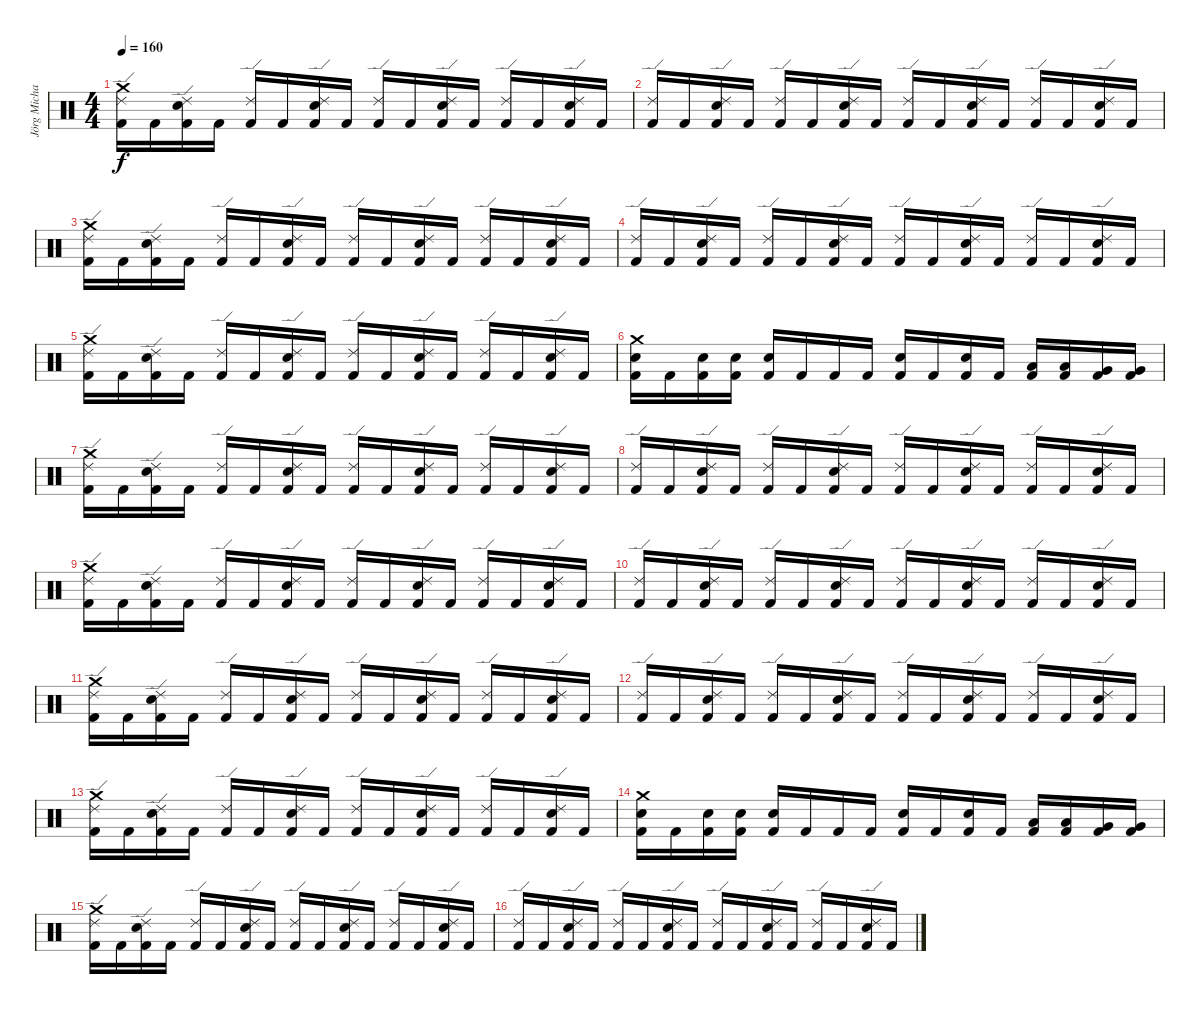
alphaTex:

\track ("Jörg Michael" "Jörg Micha") {instrument percussion}
\staff {score}
\articulation defaults
\ts (4 4)
\tempo 160
\clef neutral
\ks c
("Crash medium (hit)" "Ride (edge) 2" "Kick (hit) 2").16{dy f} "Kick (hit) 2".16 ("Electric Snare (hit)" "Ride (edge) 2" "Kick (hit) 2").16 "Kick (hit) 2".16 ("Ride (edge) 2" "Kick (hit) 2").16 "Kick (hit) 2".16 ("Electric Snare (hit)" "Ride (edge) 2" "Kick (hit) 2").16 "Kick (hit) 2".16 ("Ride (edge) 2" "Kick (hit) 2").16 "Kick (hit) 2".16 ("Electric Snare (hit)" "Ride (edge) 2" "Kick (hit) 2").16 "Kick (hit) 2".16 ("Ride (edge) 2" "Kick (hit) 2").16 "Kick (hit) 2".16 ("Electric Snare (hit)" "Ride (edge) 2" "Kick (hit) 2").16 "Kick (hit) 2".16 |
("Ride (edge) 2" "Kick (hit) 2").16 "Kick (hit) 2".16 ("Electric Snare (hit)" "Ride (edge) 2" "Kick (hit) 2").16 "Kick (hit) 2".16 ("Ride (edge) 2" "Kick (hit) 2").16 "Kick (hit) 2".16 ("Electric Snare (hit)" "Ride (edge) 2" "Kick (hit) 2").16 "Kick (hit) 2".16 ("Ride (edge) 2" "Kick (hit) 2").16 "Kick (hit) 2".16 ("Electric Snare (hit)" "Ride (edge) 2" "Kick (hit) 2").16 "Kick (hit) 2".16 ("Ride (edge) 2" "Kick (hit) 2").16 "Kick (hit) 2".16 ("Electric Snare (hit)" "Ride (edge) 2" "Kick (hit) 2").16 "Kick (hit) 2".16 |
("Crash medium (hit)" "Ride (edge) 2" "Kick (hit) 2").16 "Kick (hit) 2".16 ("Electric Snare (hit)" "Ride (edge) 2" "Kick (hit) 2").16 "Kick (hit) 2".16 ("Ride (edge) 2" "Kick (hit) 2").16 "Kick (hit) 2".16 ("Electric Snare (hit)" "Ride (edge) 2" "Kick (hit) 2").16 "Kick (hit) 2".16 ("Ride (edge) 2" "Kick (hit) 2").16 "Kick (hit) 2".16 ("Electric Snare (hit)" "Ride (edge) 2" "Kick (hit) 2").16 "Kick (hit) 2".16 ("Ride (edge) 2" "Kick (hit) 2").16 "Kick (hit) 2".16 ("Electric Snare (hit)" "Ride (edge) 2" "Kick (hit) 2").16 "Kick (hit) 2".16 |
("Ride (edge) 2" "Kick (hit) 2").16 "Kick (hit) 2".16 ("Electric Snare (hit)" "Ride (edge) 2" "Kick (hit) 2").16 "Kick (hit) 2".16 ("Ride (edge) 2" "Kick (hit) 2").16 "Kick (hit) 2".16 ("Electric Snare (hit)" "Ride (edge) 2" "Kick (hit) 2").16 "Kick (hit) 2".16 ("Ride (edge) 2" "Kick (hit) 2").16 "Kick (hit) 2".16 ("Electric Snare (hit)" "Ride (edge) 2" "Kick (hit) 2").16 "Kick (hit) 2".16 ("Ride (edge) 2" "Kick (hit) 2").16 "Kick (hit) 2".16 ("Electric Snare (hit)" "Ride (edge) 2" "Kick (hit) 2").16 "Kick (hit) 2".16 |
("Crash medium (hit)" "Ride (edge) 2" "Kick (hit) 2").16 "Kick (hit) 2".16 ("Electric Snare (hit)" "Ride (edge) 2" "Kick (hit) 2").16 "Kick (hit) 2".16 ("Ride (edge) 2" "Kick (hit) 2").16 "Kick (hit) 2".16 ("Electric Snare (hit)" "Ride (edge) 2" "Kick (hit) 2").16 "Kick (hit) 2".16 ("Ride (edge) 2" "Kick (hit) 2").16 "Kick (hit) 2".16 ("Electric Snare (hit)" "Ride (edge) 2" "Kick (hit) 2").16 "Kick (hit) 2".16 ("Ride (edge) 2" "Kick (hit) 2").16 "Kick (hit) 2".16 ("Electric Snare (hit)" "Ride (edge) 2" "Kick (hit) 2").16 "Kick (hit) 2".16 |
("Crash medium (hit)" "Electric Snare (hit)" "Kick (hit) 2").16 "Kick (hit) 2".16 ("Electric Snare (hit)" "Kick (hit) 2").16 ("Electric Snare (hit)" "Kick (hit) 2").16 ("Electric Snare (hit)" "Kick (hit) 2").16 "Kick (hit) 2".16 "Kick (hit) 2".16 "Kick (hit) 2".16 ("Electric Snare (hit)" "Kick (hit) 2").16 "Kick (hit) 2".16 ("Electric Snare (hit)" "Kick (hit) 2").16 "Kick (hit) 2".16 ("Low Tom (hit)" "Kick (hit) 2").16 ("Low Tom (hit)" "Kick (hit) 2").16 ("Very Low Tom (hit)" "Kick (hit) 2").16 ("Very Low Tom (hit)" "Kick (hit) 2").16 |
("Crash medium (hit)" "Ride (edge) 2" "Kick (hit) 2").16 "Kick (hit) 2".16 ("Electric Snare (hit)" "Ride (edge) 2" "Kick (hit) 2").16 "Kick (hit) 2".16 ("Ride (edge) 2" "Kick (hit) 2").16 "Kick (hit) 2".16 ("Electric Snare (hit)" "Ride (edge) 2" "Kick (hit) 2").16 "Kick (hit) 2".16 ("Ride (edge) 2" "Kick (hit) 2").16 "Kick (hit) 2".16 ("Electric Snare (hit)" "Ride (edge) 2" "Kick (hit) 2").16 "Kick (hit) 2".16 ("Ride (edge) 2" "Kick (hit) 2").16 "Kick (hit) 2".16 ("Electric Snare (hit)" "Ride (edge) 2" "Kick (hit) 2").16 "Kick (hit) 2".16 |
("Ride (edge) 2" "Kick (hit) 2").16 "Kick (hit) 2".16 ("Electric Snare (hit)" "Ride (edge) 2" "Kick (hit) 2").16 "Kick (hit) 2".16 ("Ride (edge) 2" "Kick (hit) 2").16 "Kick (hit) 2".16 ("Electric Snare (hit)" "Ride (edge) 2" "Kick (hit) 2").16 "Kick (hit) 2".16 ("Ride (edge) 2" "Kick (hit) 2").16 "Kick (hit) 2".16 ("Electric Snare (hit)" "Ride (edge) 2" "Kick (hit) 2").16 "Kick (hit) 2".16 ("Ride (edge) 2" "Kick (hit) 2").16 "Kick (hit) 2".16 ("Electric Snare (hit)" "Ride (edge) 2" "Kick (hit) 2").16 "Kick (hit) 2".16 |
("Crash medium (hit)" "Ride (edge) 2" "Kick (hit) 2").16 "Kick (hit) 2".16 ("Electric Snare (hit)" "Ride (edge) 2" "Kick (hit) 2").16 "Kick (hit) 2".16 ("Ride (edge) 2" "Kick (hit) 2").16 "Kick (hit) 2".16 ("Electric Snare (hit)" "Ride (edge) 2" "Kick (hit) 2").16 "Kick (hit) 2".16 ("Ride (edge) 2" "Kick (hit) 2").16 "Kick (hit) 2".16 ("Electric Snare (hit)" "Ride (edge) 2" "Kick (hit) 2").16 "Kick (hit) 2".16 ("Ride (edge) 2" "Kick (hit) 2").16 "Kick (hit) 2".16 ("Electric Snare (hit)" "Ride (edge) 2" "Kick (hit) 2").16 "Kick (hit) 2".16 |
("Ride (edge) 2" "Kick (hit) 2").16 "Kick (hit) 2".16 ("Electric Snare (hit)" "Ride (edge) 2" "Kick (hit) 2").16 "Kick (hit) 2".16 ("Ride (edge) 2" "Kick (hit) 2").16 "Kick (hit) 2".16 ("Electric Snare (hit)" "Ride (edge) 2" "Kick (hit) 2").16 "Kick (hit) 2".16 ("Ride (edge) 2" "Kick (hit) 2").16 "Kick (hit) 2".16 ("Electric Snare (hit)" "Ride (edge) 2" "Kick (hit) 2").16 "Kick (hit) 2".16 ("Ride (edge) 2" "Kick (hit) 2").16 "Kick (hit) 2".16 ("Electric Snare (hit)" "Ride (edge) 2" "Kick (hit) 2").16 "Kick (hit) 2".16 |
("Crash medium (hit)" "Ride (edge) 2" "Kick (hit) 2").16 "Kick (hit) 2".16 ("Electric Snare (hit)" "Ride (edge) 2" "Kick (hit) 2").16 "Kick (hit) 2".16 ("Ride (edge) 2" "Kick (hit) 2").16 "Kick (hit) 2".16 ("Electric Snare (hit)" "Ride (edge) 2" "Kick (hit) 2").16 "Kick (hit) 2".16 ("Ride (edge) 2" "Kick (hit) 2").16 "Kick (hit) 2".16 ("Electric Snare (hit)" "Ride (edge) 2" "Kick (hit) 2").16 "Kick (hit) 2".16 ("Ride (edge) 2" "Kick (hit) 2").16 "Kick (hit) 2".16 ("Electric Snare (hit)" "Ride (edge) 2" "Kick (hit) 2").16 "Kick (hit) 2".16 |
("Ride (edge) 2" "Kick (hit) 2").16 "Kick (hit) 2".16 ("Electric Snare (hit)" "Ride (edge) 2" "Kick (hit) 2").16 "Kick (hit) 2".16 ("Ride (edge) 2" "Kick (hit) 2").16 "Kick (hit) 2".16 ("Electric Snare (hit)" "Ride (edge) 2" "Kick (hit) 2").16 "Kick (hit) 2".16 ("Ride (edge) 2" "Kick (hit) 2").16 "Kick (hit) 2".16 ("Electric Snare (hit)" "Ride (edge) 2" "Kick (hit) 2").16 "Kick (hit) 2".16 ("Ride (edge) 2" "Kick (hit) 2").16 "Kick (hit) 2".16 ("Electric Snare (hit)" "Ride (edge) 2" "Kick (hit) 2").16 "Kick (hit) 2".16 |
("Crash medium (hit)" "Ride (edge) 2" "Kick (hit) 2").16 "Kick (hit) 2".16 ("Electric Snare (hit)" "Ride (edge) 2" "Kick (hit) 2").16 "Kick (hit) 2".16 ("Ride (edge) 2" "Kick (hit) 2").16 "Kick (hit) 2".16 ("Electric Snare (hit)" "Ride (edge) 2" "Kick (hit) 2").16 "Kick (hit) 2".16 ("Ride (edge) 2" "Kick (hit) 2").16 "Kick (hit) 2".16 ("Electric Snare (hit)" "Ride (edge) 2" "Kick (hit) 2").16 "Kick (hit) 2".16 ("Ride (edge) 2" "Kick (hit) 2").16 "Kick (hit) 2".16 ("Electric Snare (hit)" "Ride (edge) 2" "Kick (hit) 2").16 "Kick (hit) 2".16 |
("Crash medium (hit)" "Electric Snare (hit)" "Kick (hit) 2").16 "Kick (hit) 2".16 ("Electric Snare (hit)" "Kick (hit) 2").16 ("Electric Snare (hit)" "Kick (hit) 2").16 ("Electric Snare (hit)" "Kick (hit) 2").16 "Kick (hit) 2".16 "Kick (hit) 2".16 "Kick (hit) 2".16 ("Electric Snare (hit)" "Kick (hit) 2").16 "Kick (hit) 2".16 ("Electric Snare (hit)" "Kick (hit) 2").16 "Kick (hit) 2".16 ("Low Tom (hit)" "Kick (hit) 2").16 ("Low Tom (hit)" "Kick (hit) 2").16 ("Very Low Tom (hit)" "Kick (hit) 2").16 ("Very Low Tom (hit)" "Kick (hit) 2").16 |
("Crash medium (hit)" "Ride (edge) 2" "Kick (hit) 2").16 "Kick (hit) 2".16 ("Electric Snare (hit)" "Ride (edge) 2" "Kick (hit) 2").16 "Kick (hit) 2".16 ("Ride (edge) 2" "Kick (hit) 2").16 "Kick (hit) 2".16 ("Electric Snare (hit)" "Ride (edge) 2" "Kick (hit) 2").16 "Kick (hit) 2".16 ("Ride (edge) 2" "Kick (hit) 2").16 "Kick (hit) 2".16 ("Electric Snare (hit)" "Ride (edge) 2" "Kick (hit) 2").16 "Kick (hit) 2".16 ("Ride (edge) 2" "Kick (hit) 2").16 "Kick (hit) 2".16 ("Electric Snare (hit)" "Ride (edge) 2" "Kick (hit) 2").16 "Kick (hit) 2".16 |
("Ride (edge) 2" "Kick (hit) 2").16 "Kick (hit) 2".16 ("Electric Snare (hit)" "Ride (edge) 2" "Kick (hit) 2").16 "Kick (hit) 2".16 ("Ride (edge) 2" "Kick (hit) 2").16 "Kick (hit) 2".16 ("Electric Snare (hit)" "Ride (edge) 2" "Kick (hit) 2").16 "Kick (hit) 2".16 ("Ride (edge) 2" "Kick (hit) 2").16 "Kick (hit) 2".16 ("Electric Snare (hit)" "Ride (edge) 2" "Kick (hit) 2").16 "Kick (hit) 2".16 ("Ride (edge) 2" "Kick (hit) 2").16 "Kick (hit) 2".16 ("Electric Snare (hit)" "Ride (edge) 2" "Kick (hit) 2").16 "Kick (hit) 2".16
